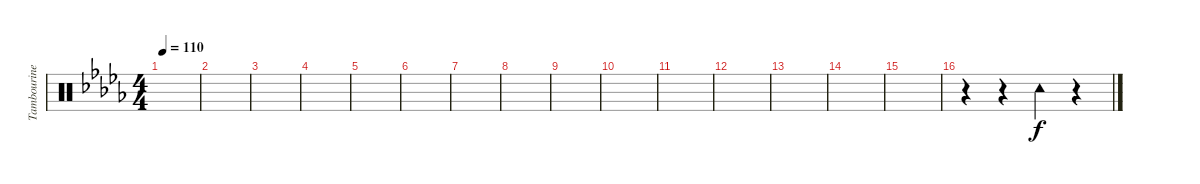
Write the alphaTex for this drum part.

\track ("Tambourine" "Tambourine") {instrument percussion}
\staff {score}
\articulation defaults
\ts (4 4)
\tempo 110
\clef neutral
\ks db
|
|
|
|
|
|
|
|
|
|
|
|
|
|
|
r.4 r.4 "Tambourine (hit)".4 r.4
